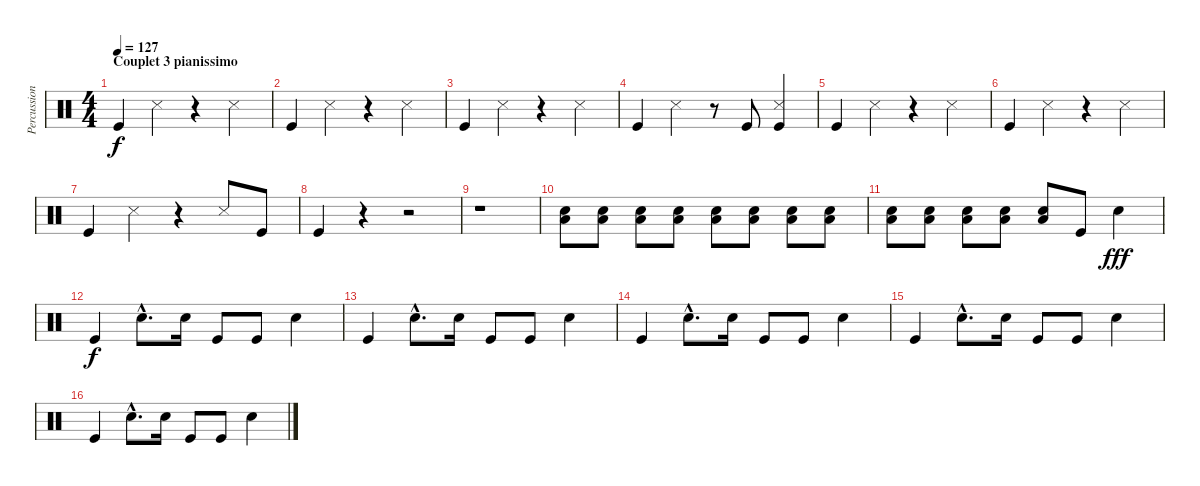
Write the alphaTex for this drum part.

\track ("Percussions" "Percussion") {instrument percussion}
\staff {score}
\articulation defaults
\ts (4 4)
\section ("" "Couplet 3 pianissimo")
\tempo 127
\clef neutral
\ks c "Kick (hit)".4{dy f} "Snare (side stick) 3".4
r.4 "Snare (side stick) 3".4 |
"Kick (hit)".4 "Snare (side stick) 3".4 r.4 "Snare (side stick) 3".4 |
"Kick (hit)".4 "Snare (side stick) 3".4 r.4 "Snare (side stick) 3".4 |
"Kick (hit)".4 "Snare (side stick) 3".4 r.8 "Kick (hit)".8 ("Snare (side stick) 3" "Kick (hit)").4 |
"Kick (hit)".4 "Snare (side stick) 3".4 r.4 "Snare (side stick) 3".4 |
"Kick (hit)".4 "Snare (side stick) 3".4 r.4 "Snare (side stick) 3".4 |
"Kick (hit)".4 "Snare (side stick) 3".4 r.4 "Snare (side stick) 3".8 "Kick (hit)".8 |
"Kick (hit)".4 r.4 r.2 |
r.1{volume 0} |
("Electric Snare (hit)" "Low Tom (hit)").8{volume 16} ("Electric Snare (hit)" "Low Tom (hit)").8 ("Electric Snare (hit)" "Low Tom (hit)").8 ("Electric Snare (hit)" "Low Tom (hit)").8 ("Electric Snare (hit)" "Low Tom (hit)").8 ("Electric Snare (hit)" "Low Tom (hit)").8 ("Electric Snare (hit)" "Low Tom (hit)").8 ("Electric Snare (hit)" "Low Tom (hit)").8 |
("Electric Snare (hit)" "Low Tom (hit)").8 ("Electric Snare (hit)" "Low Tom (hit)").8 ("Electric Snare (hit)" "Low Tom (hit)").8 ("Electric Snare (hit)" "Low Tom (hit)").8 ("Electric Snare (hit)" "Low Tom (hit)").8 "Kick (hit)".8 "Electric Snare (hit)".4{dy fff} |
"Kick (hit)".4{dy f} "Electric Snare (hit)"{hac}.8{d} "Electric Snare (hit)".16 "Kick (hit)".8 "Kick (hit)".8 "Electric Snare (hit)".4 |
"Kick (hit)".4 "Electric Snare (hit)"{hac}.8{d} "Electric Snare (hit)".16 "Kick (hit)".8 "Kick (hit)".8 "Electric Snare (hit)".4 |
"Kick (hit)".4 "Electric Snare (hit)"{hac}.8{d} "Electric Snare (hit)".16 "Kick (hit)".8 "Kick (hit)".8 "Electric Snare (hit)".4 |
"Kick (hit)".4 "Electric Snare (hit)"{hac}.8{d} "Electric Snare (hit)".16 "Kick (hit)".8 "Kick (hit)".8 "Electric Snare (hit)".4 |
"Kick (hit)".4 "Electric Snare (hit)"{hac}.8{d} "Electric Snare (hit)".16 "Kick (hit)".8 "Kick (hit)".8 "Electric Snare (hit)".4
